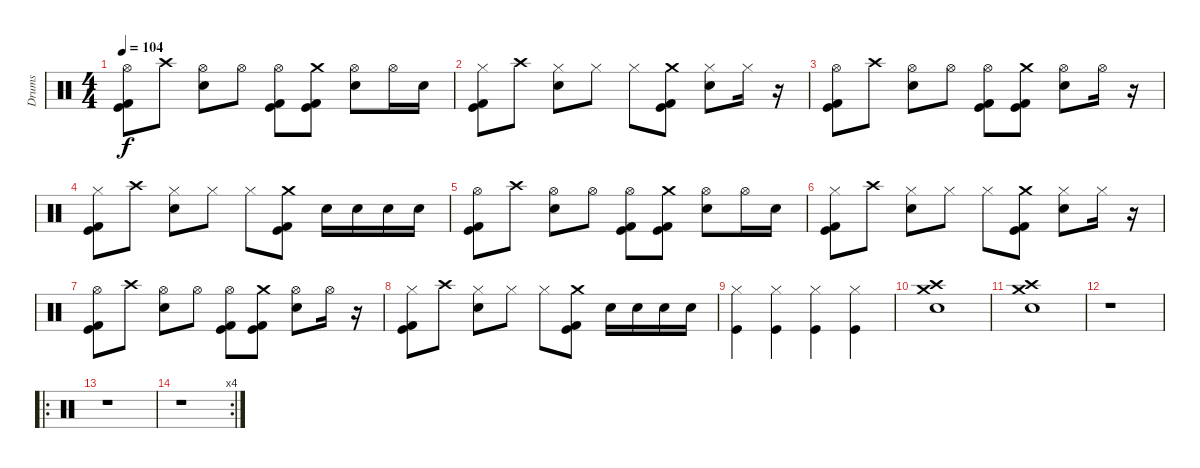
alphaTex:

\track ("Drums" "Drums") {instrument percussion}
\staff {score}
\articulation defaults
\ts (4 4)
\tempo 104
\clef neutral
\ks c
("Hi-Hat (open)" "Kick (hit) 2" "Kick (hit)").8{dy f} "Crash high (hit)".8 ("Hi-Hat (open)" "Snare (hit) 2").8 "Hi-Hat (open)".8 ("Hi-Hat (open)" "Kick (hit)" "Kick (hit) 2").8 ("Crash medium (hit)" "Kick (hit)" "Kick (hit) 2").8 ("Hi-Hat (open)" "Snare (hit) 2").8 "Hi-Hat (open)".16 "Snare (hit) 2".16 |
("Hi-Hat (closed)" "Kick (hit) 2" "Kick (hit)").8 "Crash high (hit)".8 ("Hi-Hat (closed)" "Snare (hit) 2").8 "Hi-Hat (closed)".8 "Hi-Hat (closed)".8 ("Crash medium (hit)" "Kick (hit)" "Kick (hit) 2").8 ("Hi-Hat (closed)" "Snare (hit) 2").8 "Hi-Hat (closed)".16 r.16 |
("Hi-Hat (open)" "Kick (hit) 2" "Kick (hit)").8 "Crash high (hit)".8 ("Hi-Hat (open)" "Snare (hit) 2").8 "Hi-Hat (open)".8 ("Hi-Hat (open)" "Kick (hit)" "Kick (hit) 2").8 ("Crash medium (hit)" "Kick (hit)" "Kick (hit) 2").8 ("Hi-Hat (open)" "Snare (hit) 2").8 "Hi-Hat (open)".16 r.16 |
("Hi-Hat (closed)" "Kick (hit) 2" "Kick (hit)").8 "Crash high (hit)".8 ("Hi-Hat (closed)" "Snare (hit) 2").8 "Hi-Hat (closed)".8 "Hi-Hat (closed)".8 ("Crash medium (hit)" "Kick (hit)" "Kick (hit) 2").8 "Snare (hit) 2".16 "Snare (hit) 2".16 "Snare (hit) 2".16 "Snare (hit) 2".16 |
("Hi-Hat (open)" "Kick (hit) 2" "Kick (hit)").8 "Crash high (hit)".8 ("Hi-Hat (open)" "Snare (hit) 2").8 "Hi-Hat (open)".8 ("Hi-Hat (open)" "Kick (hit)" "Kick (hit) 2").8 ("Crash medium (hit)" "Kick (hit)" "Kick (hit) 2").8 ("Hi-Hat (open)" "Snare (hit) 2").8 "Hi-Hat (open)".16 "Snare (hit) 2".16 |
("Hi-Hat (closed)" "Kick (hit) 2" "Kick (hit)").8 "Crash high (hit)".8 ("Hi-Hat (closed)" "Snare (hit) 2").8 "Hi-Hat (closed)".8 "Hi-Hat (closed)".8 ("Crash medium (hit)" "Kick (hit)" "Kick (hit) 2").8 ("Hi-Hat (closed)" "Snare (hit) 2").8 "Hi-Hat (closed)".16 r.16 |
("Hi-Hat (open)" "Kick (hit) 2" "Kick (hit)").8 "Crash high (hit)".8 ("Hi-Hat (open)" "Snare (hit) 2").8 "Hi-Hat (open)".8 ("Hi-Hat (open)" "Kick (hit)" "Kick (hit) 2").8 ("Crash medium (hit)" "Kick (hit)" "Kick (hit) 2").8 ("Hi-Hat (open)" "Snare (hit) 2").8 "Hi-Hat (open)".16 r.16 |
("Hi-Hat (closed)" "Kick (hit) 2" "Kick (hit)").8 "Crash high (hit)".8 ("Hi-Hat (closed)" "Snare (hit) 2").8 "Hi-Hat (closed)".8 "Hi-Hat (closed)".8 ("Crash medium (hit)" "Kick (hit)" "Kick (hit) 2").8 "Snare (hit) 2".16 "Snare (hit) 2".16 "Snare (hit) 2".16 "Snare (hit) 2".16 |
("Hi-Hat (closed)" "Kick (hit)").4 ("Hi-Hat (closed)" "Kick (hit)").4 ("Hi-Hat (closed)" "Kick (hit)").4 ("Hi-Hat (closed)" "Kick (hit)").4 |
("Crash high (hit)" "Snare (hit) 2" "Crash medium (hit)").1 |
("Crash high (hit)" "Snare (hit) 2" "Crash medium (hit)").1 |
r.1 |
\ro
r.1 |
\rc 4
r.1
